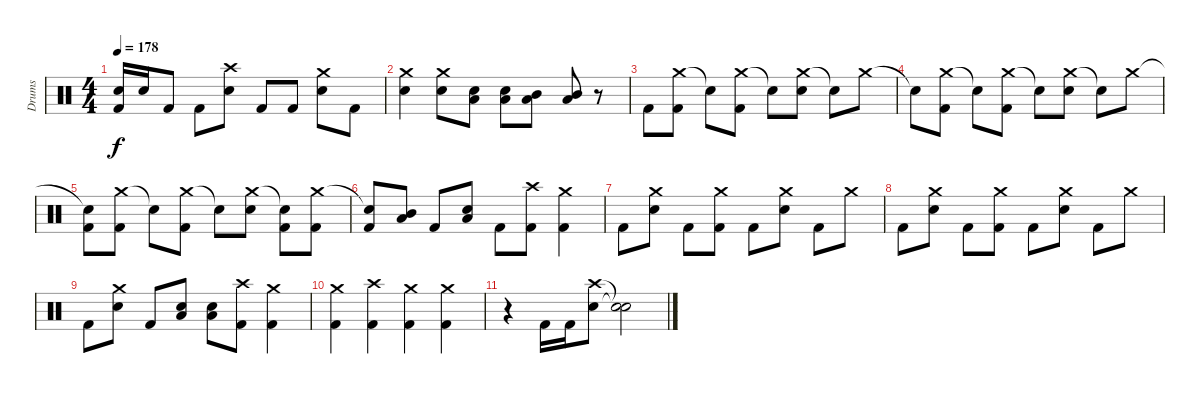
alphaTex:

\track ("Drums" "Drums") {instrument percussion}
\staff {score}
\articulation defaults
\ts (4 4)
\tempo 178
\clef neutral
\ks c
("Electric Snare (hit)" "Kick (hit) 2").16{dy f} "Electric Snare (hit)".16 "Kick (hit) 2".8 "Kick (hit) 2".8 ("Crash high (hit)" "Electric Snare (hit)").8 "Kick (hit) 2".8 "Kick (hit) 2".8 ("Crash medium (hit)" "Electric Snare (hit)").8 "Kick (hit) 2".8 |
("Crash medium (hit)" "Electric Snare (hit)").4 ("Crash medium (hit)" "Electric Snare (hit)").8 ("Low Floor Tom (hit)" "Electric Snare (hit)").8 ("Low Floor Tom (hit)" "Electric Snare (hit)").8 ("Mid Tom (hit)" "Low Tom (hit)").8 ("Mid Tom (hit)" "Low Tom (hit)").8 r.8 |
"Kick (hit) 2".8 ("Crash medium (hit)" "Kick (hit) 2").8 "Snare (hit)"{t}.8 ("Crash medium (hit)" "Kick (hit) 2").8 "Snare (hit)"{t}.8 ("Crash medium (hit)" "Electric Snare (hit)").8 "Snare (hit)"{t}.8 "Crash medium (hit)".8 |
"Snare (hit)"{t}.8 ("Crash medium (hit)" "Kick (hit) 2").8 "Snare (hit)"{t}.8 ("Crash medium (hit)" "Kick (hit) 2").8 "Snare (hit)"{t}.8 ("Crash medium (hit)" "Electric Snare (hit)").8 "Snare (hit)"{t}.8 "Crash medium (hit)".8 |
("Snare (hit)"{t} "Kick (hit) 2").8 ("Crash medium (hit)" "Kick (hit) 2").8 "Snare (hit)"{t}.8 ("Crash medium (hit)" "Kick (hit) 2").8 "Snare (hit)"{t}.8 ("Crash medium (hit)" "Electric Snare (hit)").8 ("Snare (hit)"{t} "Kick (hit) 2").8 ("Crash medium (hit)" "Kick (hit) 2").8 |
("Snare (hit)"{t} "Kick (hit) 2").8 ("Mid Tom (hit)" "Low Tom (hit)").8 "Kick (hit) 2".8 ("Low Floor Tom (hit)" "Electric Snare (hit)").8 "Kick (hit) 2".8 ("Crash high (hit)" "Kick (hit) 2").8 ("Crash medium (hit)" "Kick (hit) 2").4 |
"Kick (hit) 2".8 ("Crash medium (hit)" "Electric Snare (hit)").8 "Kick (hit) 2".8 ("Crash medium (hit)" "Kick (hit) 2").8 "Kick (hit) 2".8 ("Crash medium (hit)" "Electric Snare (hit)").8 "Kick (hit) 2".8 "Crash medium (hit)".8 |
"Kick (hit) 2".8 ("Crash medium (hit)" "Electric Snare (hit)").8 "Kick (hit) 2".8 ("Crash medium (hit)" "Kick (hit) 2").8 "Kick (hit) 2".8 ("Crash medium (hit)" "Electric Snare (hit)").8 "Kick (hit) 2".8 "Crash medium (hit)".8 |
"Kick (hit) 2".8 ("Crash medium (hit)" "Electric Snare (hit)").8 "Kick (hit) 2".8 ("Low Floor Tom (hit)" "Electric Snare (hit)").8 ("Low Floor Tom (hit)" "Electric Snare (hit)").8 ("Crash high (hit)" "Kick (hit) 2").8 ("Crash medium (hit)" "Kick (hit) 2").4 |
("Crash medium (hit)" "Kick (hit) 2").4 ("Crash high (hit)" "Kick (hit) 2").4 ("Crash medium (hit)" "Kick (hit) 2").4 ("Crash medium (hit)" "Kick (hit) 2").4 |
r.4 "Kick (hit) 2".16 "Kick (hit) 2".16 ("Crash high (hit)" "Electric Snare (hit)").8 ("Snare (hit)"{t} "Snare (hit)"{t}).2
